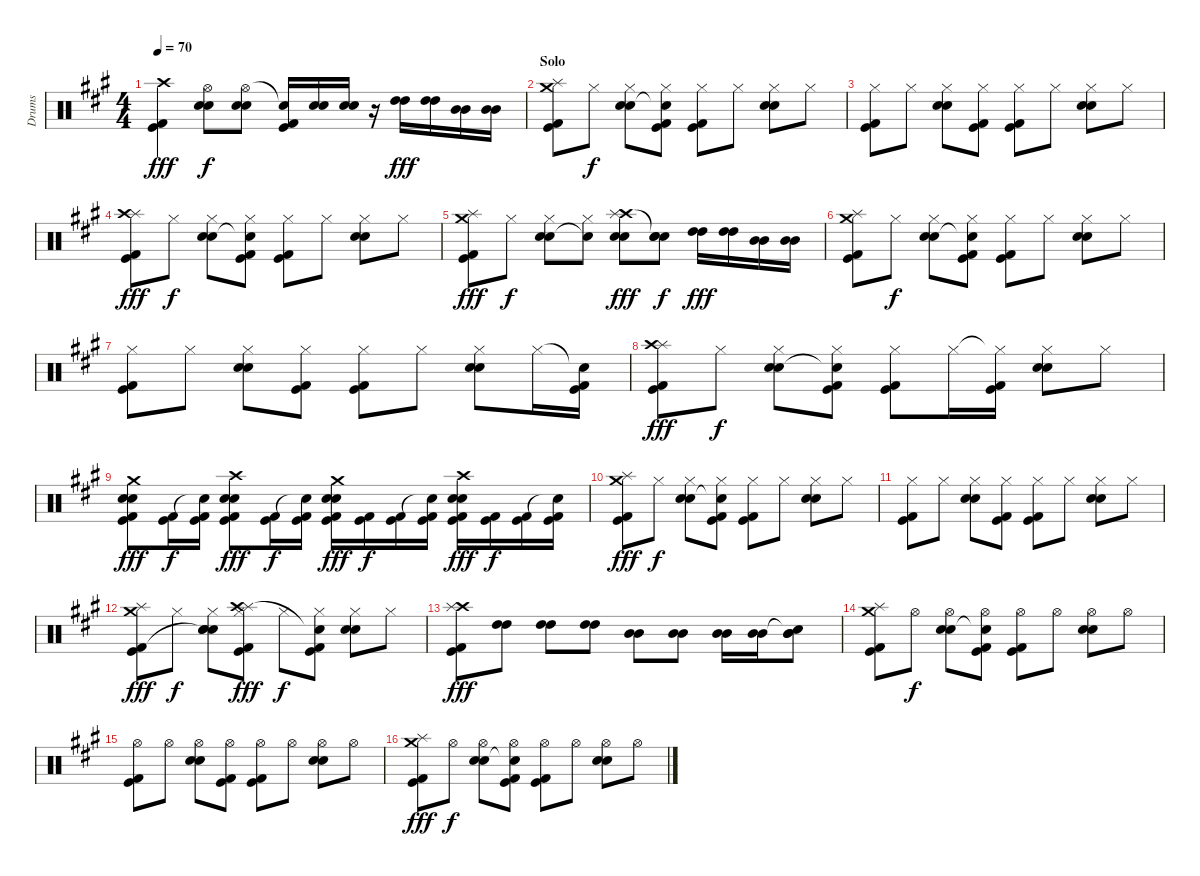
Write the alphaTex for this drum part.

\track ("Drums" "Drums") {instrument percussion}
\staff {score}
\articulation defaults
\ts (4 4)
\tempo 70
\clef neutral
\ks a
("Crash high (hit)" "Kick (hit)" "Kick (hit) 2").4{dy fff} ("Hi-Hat (open)" "Electric Snare (hit)" "Snare (hit) 2").8{dy f} ("Hi-Hat (open)" "Electric Snare (hit)" "Snare (hit) 2").8 ("Snare (hit)"{t} "Kick (hit)" "Kick (hit) 2").16 ("Electric Snare (hit)" "Snare (hit) 2").16 ("Electric Snare (hit)" "Snare (hit) 2").16 r.16 ("High Tom (hit)" "High Tom (hit)").16{dy fff} ("High Tom (hit)" "High Tom (hit)").16 ("Mid Tom (hit)" "Mid Tom (hit)").16 ("Mid Tom (hit)" "Mid Tom (hit)").16 |
\section ("" "Solo")
("Splash (hit)" "Crash medium (hit)" "Kick (hit)" "Kick (hit) 2").8 "Hi-Hat (closed)".8{dy f} ("Hi-Hat (closed)" "Electric Snare (hit)" "Snare (hit) 2").8 ("Hi-Hat (closed)" "Snare (hit)"{t} "Kick (hit)" "Kick (hit) 2").8 ("Hi-Hat (closed)" "Kick (hit)" "Kick (hit) 2").8 "Hi-Hat (closed)".8 ("Hi-Hat (closed)" "Electric Snare (hit)" "Snare (hit) 2").8 "Hi-Hat (closed)".8 |
("Hi-Hat (closed)" "Kick (hit)" "Kick (hit) 2").8 "Hi-Hat (closed)".8 ("Hi-Hat (closed)" "Electric Snare (hit)" "Snare (hit) 2").8 ("Hi-Hat (closed)" "Kick (hit)" "Kick (hit) 2").8 ("Hi-Hat (closed)" "Kick (hit)" "Kick (hit) 2").8 "Hi-Hat (closed)".8 ("Hi-Hat (closed)" "Electric Snare (hit)" "Snare (hit) 2").8 "Hi-Hat (closed)".8 |
("Splash (hit)" "Crash high (hit)" "Kick (hit)" "Kick (hit) 2").8{dy fff} "Hi-Hat (closed)".8{dy f} ("Hi-Hat (closed)" "Electric Snare (hit)" "Snare (hit) 2").8 ("Hi-Hat (closed)" "Snare (hit)"{t} "Kick (hit)" "Kick (hit) 2").8 ("Hi-Hat (closed)" "Kick (hit)" "Kick (hit) 2").8 "Hi-Hat (closed)".8 ("Hi-Hat (closed)" "Electric Snare (hit)" "Snare (hit) 2").8 "Hi-Hat (closed)".8 |
("Splash (hit)" "Crash medium (hit)" "Kick (hit)" "Kick (hit) 2").8{dy fff} "Hi-Hat (closed)".8{dy f} ("Hi-Hat (closed)" "Electric Snare (hit)" "Snare (hit) 2").8 ("Hi-Hat (closed)" "Snare (hit)"{t}).8 ("Electric Snare (hit)" "Snare (hit) 2" "Crash high (hit)" "Splash (hit)").8{dy fff} ("Electric Snare (hit)" "Snare (hit) 2" "Snare (hit)"{t}).8{dy f} ("High Tom (hit)" "High Tom (hit)").16{dy fff} ("High Tom (hit)" "High Tom (hit)").16 ("Mid Tom (hit)" "Mid Tom (hit)").16 ("Mid Tom (hit)" "Mid Tom (hit)").16 |
("Splash (hit)" "Crash medium (hit)" "Kick (hit)" "Kick (hit) 2").8 "Hi-Hat (closed)".8{dy f} ("Hi-Hat (closed)" "Electric Snare (hit)" "Snare (hit) 2").8 ("Hi-Hat (closed)" "Snare (hit)"{t} "Kick (hit)" "Kick (hit) 2").8 ("Hi-Hat (closed)" "Kick (hit)" "Kick (hit) 2").8 "Hi-Hat (closed)".8 ("Hi-Hat (closed)" "Electric Snare (hit)" "Snare (hit) 2").8 "Hi-Hat (closed)".8 |
("Hi-Hat (closed)" "Kick (hit)" "Kick (hit) 2").8 "Hi-Hat (closed)".8 ("Hi-Hat (closed)" "Electric Snare (hit)" "Snare (hit) 2").8 ("Hi-Hat (closed)" "Kick (hit)" "Kick (hit) 2").8 ("Hi-Hat (closed)" "Kick (hit)" "Kick (hit) 2").8 "Hi-Hat (closed)".8 ("Hi-Hat (closed)" "Electric Snare (hit)" "Snare (hit) 2").8 "Hi-Hat (closed)".16 ("Snare (hit)"{t} "Kick (hit)" "Kick (hit) 2").16 |
("Splash (hit)" "Crash high (hit)" "Kick (hit)" "Kick (hit) 2").8{dy fff} "Hi-Hat (closed)".8{dy f} ("Hi-Hat (closed)" "Electric Snare (hit)" "Snare (hit) 2").8 ("Hi-Hat (closed)" "Snare (hit)"{t} "Kick (hit)" "Kick (hit) 2").8 ("Hi-Hat (closed)" "Kick (hit)" "Kick (hit) 2").8 "Hi-Hat (closed)".16 ("Hi-Hat (closed)"{t} "Kick (hit)" "Kick (hit) 2").16 ("Hi-Hat (closed)" "Electric Snare (hit)" "Snare (hit) 2").8 "Hi-Hat (closed)".8 |
("Electric Snare (hit)" "Snare (hit) 2" "Crash medium (hit)" "Kick (hit)" "Kick (hit) 2").8{dy fff} ("Kick (hit)" "Kick (hit) 2").16{dy f} ("Snare (hit)"{t} "Kick (hit)" "Kick (hit) 2").16 ("Electric Snare (hit)" "Snare (hit) 2" "Crash high (hit)" "Kick (hit)" "Kick (hit) 2").8{dy fff} ("Kick (hit)" "Kick (hit) 2").16{dy f} ("Snare (hit)"{t} "Kick (hit)" "Kick (hit) 2").16 ("Electric Snare (hit)" "Snare (hit) 2" "Crash medium (hit)" "Kick (hit)" "Kick (hit) 2").16{dy fff} ("Kick (hit)" "Kick (hit) 2").16{dy f} ("Kick (hit)" "Kick (hit) 2").16 ("Snare (hit)"{t} "Kick (hit)" "Kick (hit) 2").16 ("Electric Snare (hit)" "Snare (hit) 2" "Crash high (hit)" "Kick (hit)" "Kick (hit) 2").16{dy fff} ("Kick (hit)" "Kick (hit) 2").16{dy f} ("Kick (hit)" "Kick (hit) 2").16 ("Snare (hit)"{t} "Kick (hit)" "Kick (hit) 2").16 |
("Splash (hit)" "Crash medium (hit)" "Kick (hit)" "Kick (hit) 2").8{dy fff} "Hi-Hat (closed)".8{dy f} ("Hi-Hat (closed)" "Electric Snare (hit)" "Snare (hit) 2").8 ("Hi-Hat (closed)" "Snare (hit)"{t} "Kick (hit)" "Kick (hit) 2").8 ("Hi-Hat (closed)" "Kick (hit)" "Kick (hit) 2").8 "Hi-Hat (closed)".8 ("Hi-Hat (closed)" "Electric Snare (hit)" "Snare (hit) 2").8 "Hi-Hat (closed)".8 |
("Hi-Hat (closed)" "Kick (hit)" "Kick (hit) 2").8 "Hi-Hat (closed)".8 ("Hi-Hat (closed)" "Electric Snare (hit)" "Snare (hit) 2").8 ("Hi-Hat (closed)" "Kick (hit)" "Kick (hit) 2").8 ("Hi-Hat (closed)" "Kick (hit)" "Kick (hit) 2").8 "Hi-Hat (closed)".8 ("Hi-Hat (closed)" "Electric Snare (hit)" "Snare (hit) 2").8 "Hi-Hat (closed)".8 |
("Splash (hit)" "Crash medium (hit)" "Kick (hit)" "Kick (hit) 2").8{dy fff} "Hi-Hat (closed)".8{dy f} ("Hi-Hat (closed)" "Electric Snare (hit)" "Snare (hit) 2" "Snare (hit)"{t}).8 ("Hi-Hat (closed)" "Splash (hit)" "Crash high (hit)" "Kick (hit)" "Kick (hit) 2").8{dy fff} "Hi-Hat (closed)".8{dy f} ("Hi-Hat (closed)" "Snare (hit)"{t} "Kick (hit)" "Kick (hit) 2").8 ("Hi-Hat (closed)" "Electric Snare (hit)" "Snare (hit) 2").8 "Hi-Hat (closed)".8 |
("Crash high (hit)" "Splash (hit)" "Kick (hit)" "Kick (hit) 2").8{dy fff} ("High Tom (hit)" "High Tom (hit)").8 ("High Tom (hit)" "High Tom (hit)").8 ("High Tom (hit)" "High Tom (hit)").8 ("Mid Tom (hit)" "Mid Tom (hit)").8 ("Mid Tom (hit)" "Mid Tom (hit)").8 ("Mid Tom (hit)" "Mid Tom (hit)").16 ("Mid Tom (hit)" "Mid Tom (hit)").16 ("Snare (hit)"{t} "Mid Tom (hit)" "Mid Tom (hit)").8 |
("Splash (hit)" "Crash medium (hit)" "Kick (hit)" "Kick (hit) 2").8 "Hi-Hat (open)".8{dy f} ("Hi-Hat (open)" "Electric Snare (hit)" "Snare (hit) 2").8 ("Hi-Hat (open)" "Snare (hit)"{t} "Kick (hit)" "Kick (hit) 2").8 ("Hi-Hat (open)" "Kick (hit)" "Kick (hit) 2").8 "Hi-Hat (open)".8 ("Hi-Hat (open)" "Electric Snare (hit)" "Snare (hit) 2").8 "Hi-Hat (open)".8 |
("Hi-Hat (open)" "Kick (hit)" "Kick (hit) 2").8 "Hi-Hat (open)".8 ("Hi-Hat (open)" "Electric Snare (hit)" "Snare (hit) 2").8 ("Hi-Hat (open)" "Kick (hit)" "Kick (hit) 2").8 ("Hi-Hat (open)" "Kick (hit)" "Kick (hit) 2").8 "Hi-Hat (open)".8 ("Hi-Hat (open)" "Electric Snare (hit)" "Snare (hit) 2").8 "Hi-Hat (open)".8 |
("Splash (hit)" "Crash medium (hit)" "Kick (hit)" "Kick (hit) 2").8{dy fff} "Hi-Hat (open)".8{dy f} ("Hi-Hat (open)" "Electric Snare (hit)" "Snare (hit) 2").8 ("Hi-Hat (open)" "Snare (hit)"{t} "Kick (hit)" "Kick (hit) 2").8 ("Hi-Hat (open)" "Kick (hit)" "Kick (hit) 2").8 "Hi-Hat (open)".8 ("Hi-Hat (open)" "Electric Snare (hit)" "Snare (hit) 2").8 "Hi-Hat (open)".8
